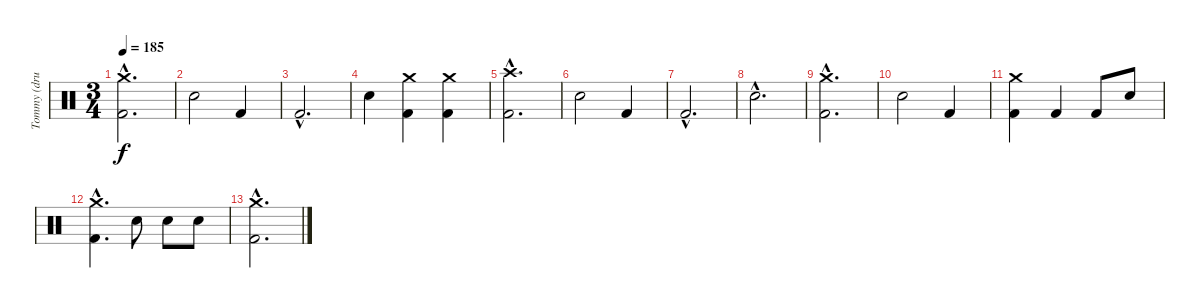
\track ("Tommy (drums)" "Tommy (dru") {instrument percussion}
\staff {score}
\articulation defaults
\ts (3 4)
\tempo 185
\clef neutral
\ks c
("Crash medium (hit)"{hac} "Kick (hit) 2"{hac}).2{d dy f} |
"Electric Snare (hit)".2 "Kick (hit) 2".4 |
"Kick (hit) 2"{hac}.2{d} |
"Electric Snare (hit)".4 ("Crash medium (hit)" "Kick (hit) 2").4 ("Crash medium (hit)" "Kick (hit) 2").4 |
("Crash high (hit)"{hac} "Kick (hit) 2"{hac}).2{d} |
"Electric Snare (hit)".2 "Kick (hit) 2".4 |
"Kick (hit) 2"{hac}.2{d} |
"Electric Snare (hit)"{hac}.2{d} |
("Crash medium (hit)"{hac} "Kick (hit) 2"{hac}).2{d} |
"Electric Snare (hit)".2 "Kick (hit) 2".4 |
("Crash medium (hit)" "Kick (hit) 2").4 "Kick (hit) 2".4 "Kick (hit) 2".8 "Electric Snare (hit)".8 |
("Crash medium (hit)"{hac} "Kick (hit) 2"{hac}).4{d} "Electric Snare (hit)".8 "Electric Snare (hit)".8 "Electric Snare (hit)".8 |
("Crash medium (hit)"{hac} "Kick (hit) 2"{hac}).2{d}
